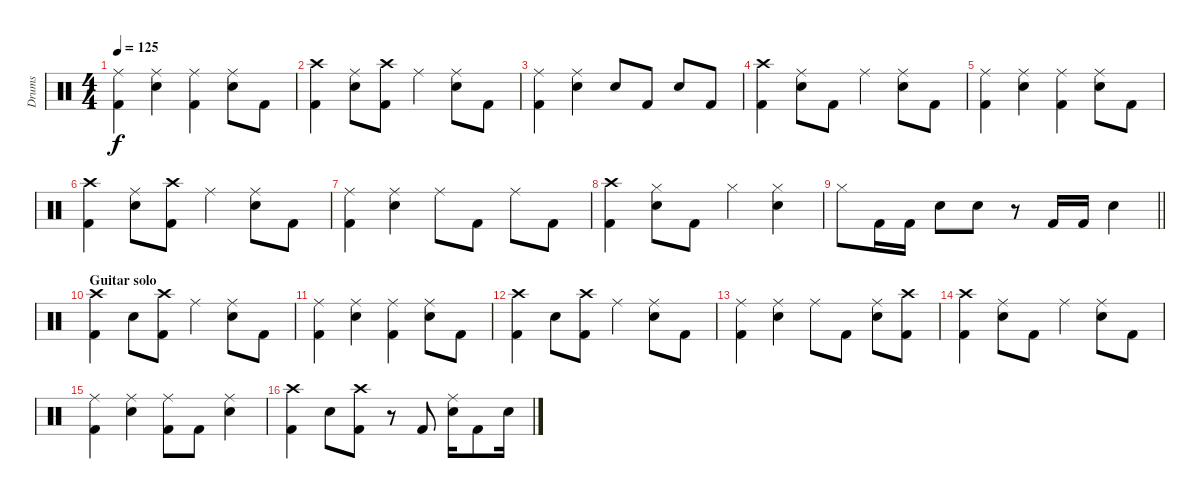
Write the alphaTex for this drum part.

\track ("Drums" "Drums") {instrument percussion}
\staff {score}
\articulation defaults
\ts (4 4)
\tempo 125
\clef neutral
\ks c
("Ride (middle)" "Kick (hit) 2").4{dy f} ("Ride (middle)" "Electric Snare (hit)").4 ("Ride (middle)" "Kick (hit) 2").4 ("Ride (middle)" "Electric Snare (hit)").8 "Kick (hit) 2".8 |
("Crash high (hit)" "Kick (hit) 2").4 ("Ride (middle)" "Electric Snare (hit)").8 ("Crash high (hit)" "Kick (hit) 2").8 "Ride (middle)".4 ("Ride (middle)" "Electric Snare (hit)").8 "Kick (hit) 2".8 |
("Ride (middle)" "Kick (hit) 2").4 ("Ride (middle)" "Electric Snare (hit)").4 "Electric Snare (hit)".8 "Kick (hit) 2".8 "Electric Snare (hit)".8 "Kick (hit) 2".8 |
("Crash high (hit)" "Kick (hit) 2").4 ("Ride (middle)" "Electric Snare (hit)").8 "Kick (hit) 2".8 "Ride (middle)".4 ("Ride (middle)" "Electric Snare (hit)").8 "Kick (hit) 2".8 |
("Ride (middle)" "Kick (hit) 2").4 ("Ride (middle)" "Electric Snare (hit)").4 ("Ride (middle)" "Kick (hit) 2").4 ("Ride (middle)" "Electric Snare (hit)").8 "Kick (hit) 2".8 |
("Crash high (hit)" "Kick (hit) 2").4 ("Ride (middle)" "Electric Snare (hit)").8 ("Crash high (hit)" "Kick (hit) 2").8 "Ride (middle)".4 ("Ride (middle)" "Electric Snare (hit)").8 "Kick (hit) 2".8 |
("Ride (middle)" "Kick (hit) 2").4 ("Ride (middle)" "Electric Snare (hit)").4 "Ride (middle)".8 "Kick (hit) 2".8 "Ride (middle)".8 "Kick (hit) 2".8 |
("Crash high (hit)" "Kick (hit) 2").4 ("Hi-Hat (closed)" "Electric Snare (hit)").8 "Kick (hit) 2".8 "Hi-Hat (closed)".4 ("Hi-Hat (closed)" "Electric Snare (hit)").4 |
\barLineRight lightlight "Hi-Hat (closed)".8 "Kick (hit) 2".16 "Kick (hit) 2".16 "Electric Snare (hit)".8 "Electric Snare (hit)".8
r.8 "Kick (hit) 2".16 "Kick (hit) 2".16 "Electric Snare (hit)".4 |
\section ("" "Guitar solo")
("Crash high (hit)" "Kick (hit) 2").4 "Electric Snare (hit)".8 ("Crash high (hit)" "Kick (hit) 2").8 "Ride (middle)".4 ("Ride (middle)" "Electric Snare (hit)").8 "Kick (hit) 2".8 |
("Ride (middle)" "Kick (hit) 2").4 ("Ride (middle)" "Electric Snare (hit)").4 ("Ride (middle)" "Kick (hit) 2").4 ("Ride (middle)" "Electric Snare (hit)").8 "Kick (hit) 2".8 |
("Crash high (hit)" "Kick (hit) 2").4 "Electric Snare (hit)".8 ("Crash high (hit)" "Kick (hit) 2").8 "Ride (middle)".4 ("Ride (middle)" "Electric Snare (hit)").8 "Kick (hit) 2".8 |
("Ride (middle)" "Kick (hit) 2").4 ("Ride (middle)" "Electric Snare (hit)").4 "Ride (middle)".8 "Kick (hit) 2".8 ("Ride (middle)" "Electric Snare (hit)").8 ("Crash high (hit)" "Kick (hit) 2").8 |
("Crash high (hit)" "Kick (hit) 2").4 ("Ride (middle)" "Electric Snare (hit)").8 "Kick (hit) 2".8 "Ride (middle)".4 ("Ride (middle)" "Electric Snare (hit)").8 "Kick (hit) 2".8 |
("Ride (middle)" "Kick (hit) 2").4 ("Ride (middle)" "Electric Snare (hit)").4 ("Ride (middle)" "Kick (hit) 2").8 "Kick (hit) 2".8 ("Ride (middle)" "Electric Snare (hit)").4 |
("Crash high (hit)" "Kick (hit) 2").4 "Electric Snare (hit)".8 ("Crash high (hit)" "Kick (hit) 2").8 r.8 "Kick (hit) 2".8 ("Ride (middle)" "Electric Snare (hit)").16 "Kick (hit) 2".8 "Electric Snare (hit)".16
